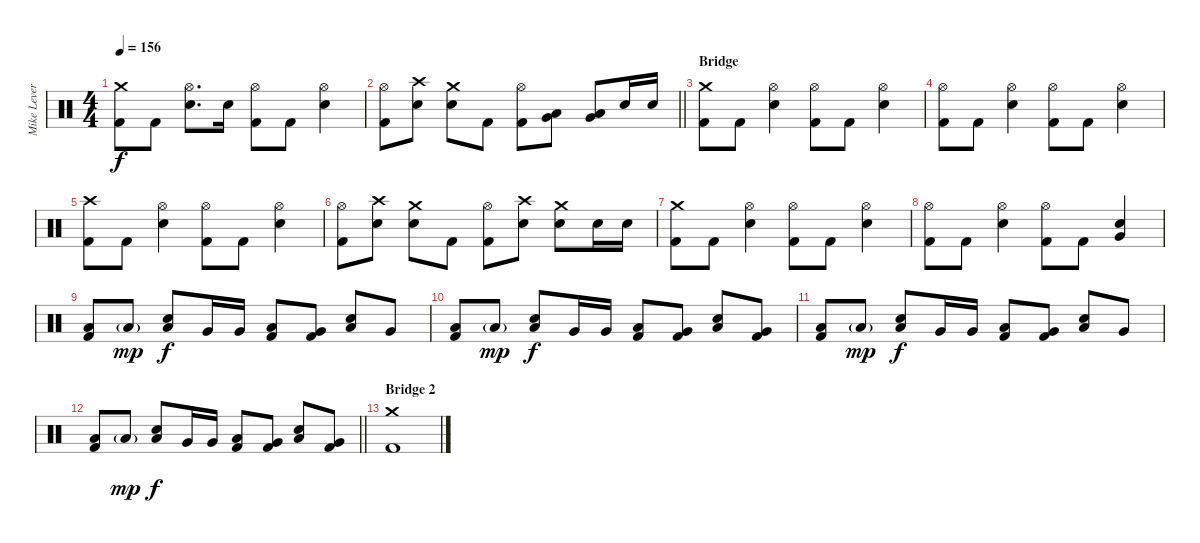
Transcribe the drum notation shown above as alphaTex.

\track ("Mike Leverence - Drums" "Mike Lever") {instrument percussion}
\staff {score}
\articulation defaults
\ts (4 4)
\tempo 156
\clef neutral
\ks c
("Crash medium (hit)" "Kick (hit) 2").8{dy f} "Kick (hit) 2".8 ("Hi-Hat (open)" "Electric Snare (hit)").8{d} "Electric Snare (hit)".16 ("Hi-Hat (open)" "Kick (hit) 2").8 "Kick (hit) 2".8 ("Hi-Hat (open)" "Electric Snare (hit)").4 |
\barLineRight lightlight
("Hi-Hat (open)" "Kick (hit) 2").8 ("Crash high (hit)" "Electric Snare (hit)").8 ("Crash medium (hit)" "Electric Snare (hit)").8 "Kick (hit) 2".8 ("Hi-Hat (open)" "Kick (hit) 2").8 ("Very Low Tom (hit)" "Low Tom (hit)").8 ("Very Low Tom (hit)" "Low Tom (hit)").8 "Electric Snare (hit)".16 "Electric Snare (hit)".16 |
\section ("" "Bridge")
("Crash medium (hit)" "Kick (hit) 2").8 "Kick (hit) 2".8 ("Hi-Hat (open)" "Electric Snare (hit)").4 ("Hi-Hat (open)" "Kick (hit) 2").8 "Kick (hit) 2".8 ("Hi-Hat (open)" "Electric Snare (hit)").4 |
("Hi-Hat (open)" "Kick (hit) 2").8 "Kick (hit) 2".8 ("Hi-Hat (open)" "Electric Snare (hit)").4 ("Hi-Hat (open)" "Kick (hit) 2").8 "Kick (hit) 2".8 ("Hi-Hat (open)" "Electric Snare (hit)").4 |
("Crash high (hit)" "Kick (hit) 2").8 "Kick (hit) 2".8 ("Hi-Hat (open)" "Electric Snare (hit)").4 ("Hi-Hat (open)" "Kick (hit) 2").8 "Kick (hit) 2".8 ("Hi-Hat (open)" "Electric Snare (hit)").4 |
("Hi-Hat (open)" "Kick (hit) 2").8 ("Crash high (hit)" "Electric Snare (hit)").8 ("Crash medium (hit)" "Electric Snare (hit)").8 "Kick (hit) 2".8 ("Hi-Hat (open)" "Kick (hit) 2").8 ("Crash high (hit)" "Electric Snare (hit)").8 ("Crash medium (hit)" "Electric Snare (hit)").8 "Electric Snare (hit)".16 "Electric Snare (hit)".16 |
("Crash medium (hit)" "Kick (hit) 2").8 "Kick (hit) 2".8 ("Hi-Hat (open)" "Electric Snare (hit)").4 ("Hi-Hat (open)" "Kick (hit) 2").8 "Kick (hit) 2".8 ("Hi-Hat (open)" "Electric Snare (hit)").4 |
("Hi-Hat (open)" "Kick (hit) 2").8 "Kick (hit) 2".8 ("Hi-Hat (open)" "Electric Snare (hit)").4 ("Hi-Hat (open)" "Kick (hit) 2").8 "Kick (hit) 2".8 ("Very Low Tom (hit)" "Electric Snare (hit)").4 |
("Low Floor Tom (hit)" "Kick (hit) 2").8 "Low Floor Tom (hit)"{g}.8{dy mp} ("Low Floor Tom (hit)" "Electric Snare (hit)").8{dy f} "Very Low Tom (hit)".16 "Very Low Tom (hit)".16 ("Low Floor Tom (hit)" "Kick (hit) 2").8 ("Very Low Tom (hit)" "Kick (hit) 2").8 ("Low Floor Tom (hit)" "Electric Snare (hit)").8 "Very Low Tom (hit)".8 |
("Low Floor Tom (hit)" "Kick (hit) 2").8 "Low Floor Tom (hit)"{g}.8{dy mp} ("Low Floor Tom (hit)" "Electric Snare (hit)").8{dy f} "Very Low Tom (hit)".16 "Very Low Tom (hit)".16 ("Low Floor Tom (hit)" "Kick (hit) 2").8 ("Very Low Tom (hit)" "Kick (hit) 2").8 ("Low Floor Tom (hit)" "Electric Snare (hit)").8 ("Very Low Tom (hit)" "Kick (hit) 2").8 |
("Low Floor Tom (hit)" "Kick (hit) 2").8 "Low Floor Tom (hit)"{g}.8{dy mp} ("Low Floor Tom (hit)" "Electric Snare (hit)").8{dy f} "Very Low Tom (hit)".16 "Very Low Tom (hit)".16 ("Low Floor Tom (hit)" "Kick (hit) 2").8 ("Very Low Tom (hit)" "Kick (hit) 2").8 ("Low Floor Tom (hit)" "Electric Snare (hit)").8 "Very Low Tom (hit)".8 |
\barLineRight lightlight
("Low Floor Tom (hit)" "Kick (hit) 2").8 "Low Floor Tom (hit)"{g}.8{dy mp} ("Low Floor Tom (hit)" "Electric Snare (hit)").8{dy f} "Very Low Tom (hit)".16 "Very Low Tom (hit)".16 ("Low Floor Tom (hit)" "Kick (hit) 2").8 ("Very Low Tom (hit)" "Kick (hit) 2").8 ("Low Floor Tom (hit)" "Electric Snare (hit)").8 ("Very Low Tom (hit)" "Kick (hit) 2").8 |
\section ("" "Bridge 2")
("Crash medium (hit)" "Kick (hit) 2").1
